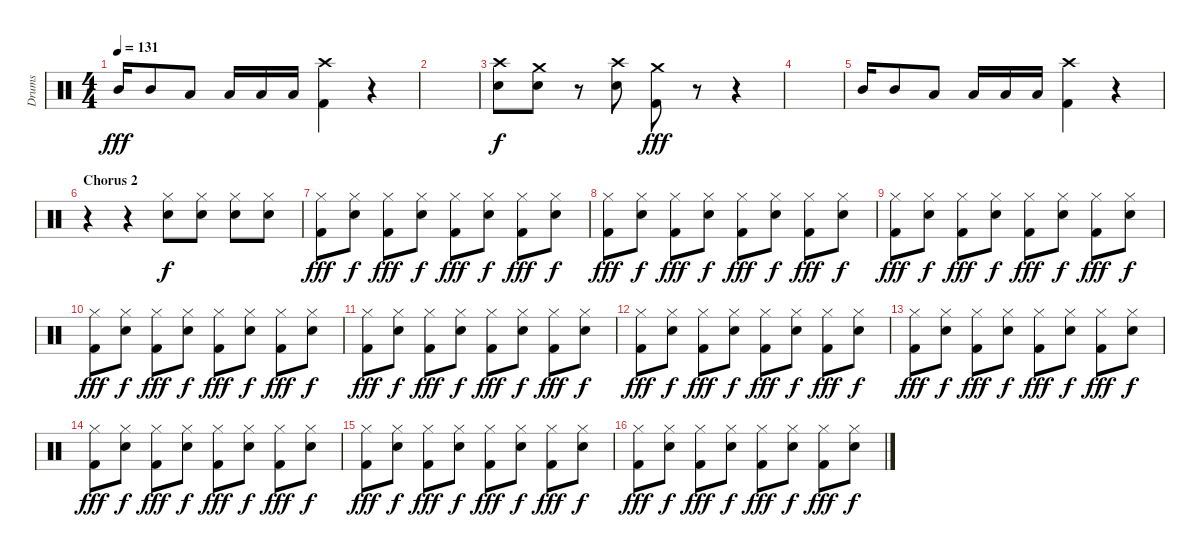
\track ("Drums" "Drums") {instrument percussion}
\staff {score}
\articulation defaults
\ts (4 4)
\tempo 131
\clef neutral
\ks c "Mid Tom (hit)".16{dy fff} "Mid Tom (hit)".8 "Low Tom (hit)".8 "Low Tom (hit)".16 "Low Floor Tom (hit)".16 "Low Floor Tom (hit)".16
("Crash high (hit)" "Kick (hit) 2").4 r.4 |
|
("Crash high (hit)" "Electric Snare (hit)").8{dy f} ("Crash medium (hit)" "Electric Snare (hit)").8 r.8 ("Crash high (hit)" "Electric Snare (hit)").8 ("Crash medium (hit)" "Kick (hit) 2").8{dy fff} r.8 r.4 |
|
"Mid Tom (hit)".16 "Mid Tom (hit)".8 "Low Tom (hit)".8 "Low Tom (hit)".16 "Low Floor Tom (hit)".16 "Low Floor Tom (hit)".16 ("Crash high (hit)" "Kick (hit) 2").4 r.4 |
\section ("" "Chorus 2")
r.4 r.4 ("Hi-Hat (closed)" "Electric Snare (hit)").8{dy f} ("Hi-Hat (closed)" "Electric Snare (hit)").8 ("Hi-Hat (closed)" "Electric Snare (hit)").8 ("Hi-Hat (closed)" "Electric Snare (hit)").8 |
("Hi-Hat (closed)" "Kick (hit) 2").8{dy fff} ("Hi-Hat (closed)" "Electric Snare (hit)").8{dy f} ("Hi-Hat (closed)" "Kick (hit) 2").8{dy fff} ("Hi-Hat (closed)" "Electric Snare (hit)").8{dy f} ("Hi-Hat (closed)" "Kick (hit) 2").8{dy fff} ("Hi-Hat (closed)" "Electric Snare (hit)").8{dy f} ("Hi-Hat (closed)" "Kick (hit) 2").8{dy fff} ("Hi-Hat (closed)" "Electric Snare (hit)").8{dy f} |
("Hi-Hat (closed)" "Kick (hit) 2").8{dy fff} ("Hi-Hat (closed)" "Electric Snare (hit)").8{dy f} ("Hi-Hat (closed)" "Kick (hit) 2").8{dy fff} ("Hi-Hat (closed)" "Electric Snare (hit)").8{dy f} ("Hi-Hat (closed)" "Kick (hit) 2").8{dy fff} ("Hi-Hat (closed)" "Electric Snare (hit)").8{dy f} ("Hi-Hat (closed)" "Kick (hit) 2").8{dy fff} ("Hi-Hat (closed)" "Electric Snare (hit)").8{dy f} |
("Hi-Hat (closed)" "Kick (hit) 2").8{dy fff} ("Hi-Hat (closed)" "Electric Snare (hit)").8{dy f} ("Hi-Hat (closed)" "Kick (hit) 2").8{dy fff} ("Hi-Hat (closed)" "Electric Snare (hit)").8{dy f} ("Hi-Hat (closed)" "Kick (hit) 2").8{dy fff} ("Hi-Hat (closed)" "Electric Snare (hit)").8{dy f} ("Hi-Hat (closed)" "Kick (hit) 2").8{dy fff} ("Hi-Hat (closed)" "Electric Snare (hit)").8{dy f} |
("Hi-Hat (closed)" "Kick (hit) 2").8{dy fff} ("Hi-Hat (closed)" "Electric Snare (hit)").8{dy f} ("Hi-Hat (closed)" "Kick (hit) 2").8{dy fff} ("Hi-Hat (closed)" "Electric Snare (hit)").8{dy f} ("Hi-Hat (closed)" "Kick (hit) 2").8{dy fff} ("Hi-Hat (closed)" "Electric Snare (hit)").8{dy f} ("Hi-Hat (closed)" "Kick (hit) 2").8{dy fff} ("Hi-Hat (closed)" "Electric Snare (hit)").8{dy f} |
("Hi-Hat (closed)" "Kick (hit) 2").8{dy fff} ("Hi-Hat (closed)" "Electric Snare (hit)").8{dy f} ("Hi-Hat (closed)" "Kick (hit) 2").8{dy fff} ("Hi-Hat (closed)" "Electric Snare (hit)").8{dy f} ("Hi-Hat (closed)" "Kick (hit) 2").8{dy fff} ("Hi-Hat (closed)" "Electric Snare (hit)").8{dy f} ("Hi-Hat (closed)" "Kick (hit) 2").8{dy fff} ("Hi-Hat (closed)" "Electric Snare (hit)").8{dy f} |
("Hi-Hat (closed)" "Kick (hit) 2").8{dy fff} ("Hi-Hat (closed)" "Electric Snare (hit)").8{dy f} ("Hi-Hat (closed)" "Kick (hit) 2").8{dy fff} ("Hi-Hat (closed)" "Electric Snare (hit)").8{dy f} ("Hi-Hat (closed)" "Kick (hit) 2").8{dy fff} ("Hi-Hat (closed)" "Electric Snare (hit)").8{dy f} ("Hi-Hat (closed)" "Kick (hit) 2").8{dy fff} ("Hi-Hat (closed)" "Electric Snare (hit)").8{dy f} |
("Hi-Hat (closed)" "Kick (hit) 2").8{dy fff} ("Hi-Hat (closed)" "Electric Snare (hit)").8{dy f} ("Hi-Hat (closed)" "Kick (hit) 2").8{dy fff} ("Hi-Hat (closed)" "Electric Snare (hit)").8{dy f} ("Hi-Hat (closed)" "Kick (hit) 2").8{dy fff} ("Hi-Hat (closed)" "Electric Snare (hit)").8{dy f} ("Hi-Hat (closed)" "Kick (hit) 2").8{dy fff} ("Hi-Hat (closed)" "Electric Snare (hit)").8{dy f} |
("Hi-Hat (closed)" "Kick (hit) 2").8{dy fff} ("Hi-Hat (closed)" "Electric Snare (hit)").8{dy f} ("Hi-Hat (closed)" "Kick (hit) 2").8{dy fff} ("Hi-Hat (closed)" "Electric Snare (hit)").8{dy f} ("Hi-Hat (closed)" "Kick (hit) 2").8{dy fff} ("Hi-Hat (closed)" "Electric Snare (hit)").8{dy f} ("Hi-Hat (closed)" "Kick (hit) 2").8{dy fff} ("Hi-Hat (closed)" "Electric Snare (hit)").8{dy f} |
("Hi-Hat (closed)" "Kick (hit) 2").8{dy fff} ("Hi-Hat (closed)" "Electric Snare (hit)").8{dy f} ("Hi-Hat (closed)" "Kick (hit) 2").8{dy fff} ("Hi-Hat (closed)" "Electric Snare (hit)").8{dy f} ("Hi-Hat (closed)" "Kick (hit) 2").8{dy fff} ("Hi-Hat (closed)" "Electric Snare (hit)").8{dy f} ("Hi-Hat (closed)" "Kick (hit) 2").8{dy fff} ("Hi-Hat (closed)" "Electric Snare (hit)").8{dy f} |
("Hi-Hat (closed)" "Kick (hit) 2").8{dy fff} ("Hi-Hat (closed)" "Electric Snare (hit)").8{dy f} ("Hi-Hat (closed)" "Kick (hit) 2").8{dy fff} ("Hi-Hat (closed)" "Electric Snare (hit)").8{dy f} ("Hi-Hat (closed)" "Kick (hit) 2").8{dy fff} ("Hi-Hat (closed)" "Electric Snare (hit)").8{dy f} ("Hi-Hat (closed)" "Kick (hit) 2").8{dy fff} ("Hi-Hat (closed)" "Electric Snare (hit)").8{dy f}
